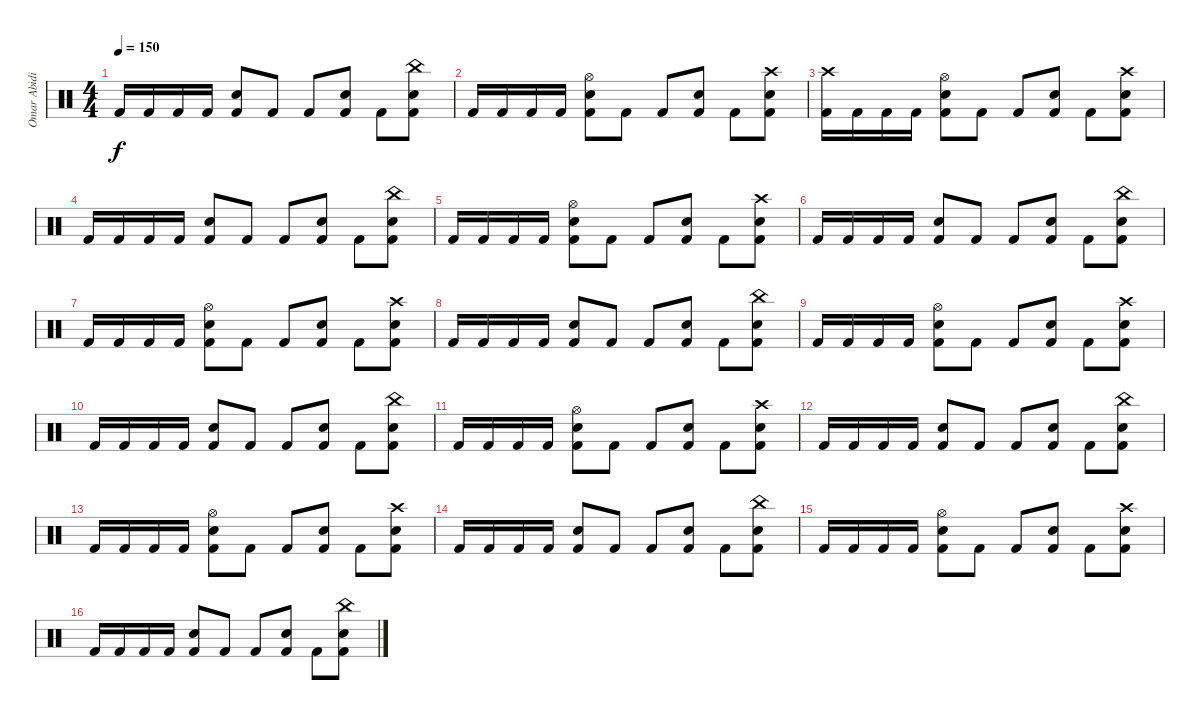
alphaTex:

\track ("Omar Abidi" "Omar Abidi") {instrument percussion}
\staff {score}
\articulation defaults
\ts (4 4)
\tempo 150
\clef neutral
\ks c "Kick (hit) 2".16{dy f} "Kick (hit) 2".16 "Kick (hit) 2".16 "Kick (hit) 2".16
("Snare (hit) 2" "Kick (hit) 2").8 "Kick (hit) 2".8 "Kick (hit) 2".8 ("Snare (hit) 2" "Kick (hit) 2").8 "Kick (hit) 2".8 ("China (hit)" "Snare (hit) 2" "Kick (hit) 2").8 |
"Kick (hit) 2".16 "Kick (hit) 2".16 "Kick (hit) 2".16 "Kick (hit) 2".16 ("Hi-Hat (open)" "Snare (hit) 2" "Kick (hit) 2").8 "Kick (hit) 2".8 "Kick (hit) 2".8 ("Snare (hit) 2" "Kick (hit) 2").8 "Kick (hit) 2".8 ("Crash high (hit)" "Snare (hit) 2" "Kick (hit) 2").8 |
("Crash high (hit)" "Kick (hit) 2").16 "Kick (hit) 2".16 "Kick (hit) 2".16 "Kick (hit) 2".16 ("Hi-Hat (open)" "Snare (hit) 2" "Kick (hit) 2").8 "Kick (hit) 2".8 "Kick (hit) 2".8 ("Snare (hit) 2" "Kick (hit) 2").8 "Kick (hit) 2".8 ("Crash high (hit)" "Snare (hit) 2" "Kick (hit) 2").8 |
"Kick (hit) 2".16 "Kick (hit) 2".16 "Kick (hit) 2".16 "Kick (hit) 2".16 ("Snare (hit) 2" "Kick (hit) 2").8 "Kick (hit) 2".8 "Kick (hit) 2".8 ("Snare (hit) 2" "Kick (hit) 2").8 "Kick (hit) 2".8 ("China (hit)" "Snare (hit) 2" "Kick (hit) 2").8 |
"Kick (hit) 2".16 "Kick (hit) 2".16 "Kick (hit) 2".16 "Kick (hit) 2".16 ("Hi-Hat (open)" "Snare (hit) 2" "Kick (hit) 2").8 "Kick (hit) 2".8 "Kick (hit) 2".8 ("Snare (hit) 2" "Kick (hit) 2").8 "Kick (hit) 2".8 ("Crash high (hit)" "Snare (hit) 2" "Kick (hit) 2").8 |
"Kick (hit) 2".16 "Kick (hit) 2".16 "Kick (hit) 2".16 "Kick (hit) 2".16 ("Snare (hit) 2" "Kick (hit) 2").8 "Kick (hit) 2".8 "Kick (hit) 2".8 ("Snare (hit) 2" "Kick (hit) 2").8 "Kick (hit) 2".8 ("China (hit)" "Snare (hit) 2" "Kick (hit) 2").8 |
"Kick (hit) 2".16 "Kick (hit) 2".16 "Kick (hit) 2".16 "Kick (hit) 2".16 ("Hi-Hat (open)" "Snare (hit) 2" "Kick (hit) 2").8 "Kick (hit) 2".8 "Kick (hit) 2".8 ("Snare (hit) 2" "Kick (hit) 2").8 "Kick (hit) 2".8 ("Crash high (hit)" "Snare (hit) 2" "Kick (hit) 2").8 |
"Kick (hit) 2".16 "Kick (hit) 2".16 "Kick (hit) 2".16 "Kick (hit) 2".16 ("Snare (hit) 2" "Kick (hit) 2").8 "Kick (hit) 2".8 "Kick (hit) 2".8 ("Snare (hit) 2" "Kick (hit) 2").8 "Kick (hit) 2".8 ("China (hit)" "Snare (hit) 2" "Kick (hit) 2").8 |
"Kick (hit) 2".16 "Kick (hit) 2".16 "Kick (hit) 2".16 "Kick (hit) 2".16 ("Hi-Hat (open)" "Snare (hit) 2" "Kick (hit) 2").8 "Kick (hit) 2".8 "Kick (hit) 2".8 ("Snare (hit) 2" "Kick (hit) 2").8 "Kick (hit) 2".8 ("Crash high (hit)" "Snare (hit) 2" "Kick (hit) 2").8 |
"Kick (hit) 2".16 "Kick (hit) 2".16 "Kick (hit) 2".16 "Kick (hit) 2".16 ("Snare (hit) 2" "Kick (hit) 2").8 "Kick (hit) 2".8 "Kick (hit) 2".8 ("Snare (hit) 2" "Kick (hit) 2").8 "Kick (hit) 2".8 ("China (hit)" "Snare (hit) 2" "Kick (hit) 2").8 |
"Kick (hit) 2".16 "Kick (hit) 2".16 "Kick (hit) 2".16 "Kick (hit) 2".16 ("Hi-Hat (open)" "Snare (hit) 2" "Kick (hit) 2").8 "Kick (hit) 2".8 "Kick (hit) 2".8 ("Snare (hit) 2" "Kick (hit) 2").8 "Kick (hit) 2".8 ("Crash high (hit)" "Snare (hit) 2" "Kick (hit) 2").8 |
"Kick (hit) 2".16 "Kick (hit) 2".16 "Kick (hit) 2".16 "Kick (hit) 2".16 ("Snare (hit) 2" "Kick (hit) 2").8 "Kick (hit) 2".8 "Kick (hit) 2".8 ("Snare (hit) 2" "Kick (hit) 2").8 "Kick (hit) 2".8 ("China (hit)" "Snare (hit) 2" "Kick (hit) 2").8 |
"Kick (hit) 2".16 "Kick (hit) 2".16 "Kick (hit) 2".16 "Kick (hit) 2".16 ("Hi-Hat (open)" "Snare (hit) 2" "Kick (hit) 2").8 "Kick (hit) 2".8 "Kick (hit) 2".8 ("Snare (hit) 2" "Kick (hit) 2").8 "Kick (hit) 2".8 ("Crash high (hit)" "Snare (hit) 2" "Kick (hit) 2").8 |
"Kick (hit) 2".16 "Kick (hit) 2".16 "Kick (hit) 2".16 "Kick (hit) 2".16 ("Snare (hit) 2" "Kick (hit) 2").8 "Kick (hit) 2".8 "Kick (hit) 2".8 ("Snare (hit) 2" "Kick (hit) 2").8 "Kick (hit) 2".8 ("China (hit)" "Snare (hit) 2" "Kick (hit) 2").8 |
"Kick (hit) 2".16 "Kick (hit) 2".16 "Kick (hit) 2".16 "Kick (hit) 2".16 ("Hi-Hat (open)" "Snare (hit) 2" "Kick (hit) 2").8 "Kick (hit) 2".8 "Kick (hit) 2".8 ("Snare (hit) 2" "Kick (hit) 2").8 "Kick (hit) 2".8 ("Crash high (hit)" "Snare (hit) 2" "Kick (hit) 2").8 |
"Kick (hit) 2".16 "Kick (hit) 2".16 "Kick (hit) 2".16 "Kick (hit) 2".16 ("Snare (hit) 2" "Kick (hit) 2").8 "Kick (hit) 2".8 "Kick (hit) 2".8 ("Snare (hit) 2" "Kick (hit) 2").8 "Kick (hit) 2".8 ("China (hit)" "Snare (hit) 2" "Kick (hit) 2").8
